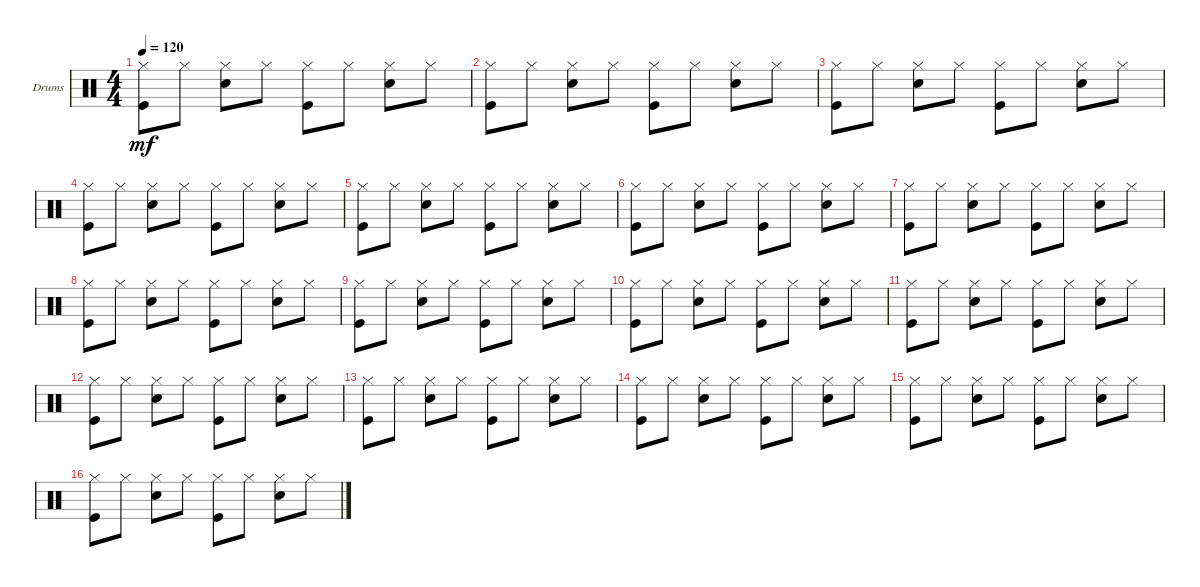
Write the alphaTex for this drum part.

\defaultSystemsLayout 4
\bracketExtendMode groupsimilarinstruments
\firstSystemTrackNameOrientation horizontal
\otherSystemsTrackNameOrientation horizontal
\track ("Drumkit             ( Ударные )" "Drums") {instrument percussion}
\staff {score}
\articulation defaults
\ts (4 4)
\tempo 120
\clef neutral
\ks c
("Hi-Hat (closed)" "Kick (hit)").8{dy mf} "Hi-Hat (closed)".8 ("Hi-Hat (closed)" "Snare (hit) 2").8 "Hi-Hat (closed)".8 ("Hi-Hat (closed)" "Kick (hit)").8 "Hi-Hat (closed)".8 ("Hi-Hat (closed)" "Snare (hit) 2").8 "Hi-Hat (closed)".8 |
("Hi-Hat (closed)" "Kick (hit)").8 "Hi-Hat (closed)".8 ("Hi-Hat (closed)" "Snare (hit) 2").8 "Hi-Hat (closed)".8 ("Hi-Hat (closed)" "Kick (hit)").8 "Hi-Hat (closed)".8 ("Hi-Hat (closed)" "Snare (hit) 2").8 "Hi-Hat (closed)".8 |
("Hi-Hat (closed)" "Kick (hit)").8 "Hi-Hat (closed)".8 ("Hi-Hat (closed)" "Snare (hit) 2").8 "Hi-Hat (closed)".8 ("Hi-Hat (closed)" "Kick (hit)").8 "Hi-Hat (closed)".8 ("Hi-Hat (closed)" "Snare (hit) 2").8 "Hi-Hat (closed)".8 |
("Hi-Hat (closed)" "Kick (hit)").8 "Hi-Hat (closed)".8 ("Hi-Hat (closed)" "Snare (hit) 2").8 "Hi-Hat (closed)".8 ("Hi-Hat (closed)" "Kick (hit)").8 "Hi-Hat (closed)".8 ("Hi-Hat (closed)" "Snare (hit) 2").8 "Hi-Hat (closed)".8 |
("Hi-Hat (closed)" "Kick (hit)").8 "Hi-Hat (closed)".8 ("Hi-Hat (closed)" "Snare (hit) 2").8 "Hi-Hat (closed)".8 ("Hi-Hat (closed)" "Kick (hit)").8 "Hi-Hat (closed)".8 ("Hi-Hat (closed)" "Snare (hit) 2").8 "Hi-Hat (closed)".8 |
("Hi-Hat (closed)" "Kick (hit)").8 "Hi-Hat (closed)".8 ("Hi-Hat (closed)" "Snare (hit) 2").8 "Hi-Hat (closed)".8 ("Hi-Hat (closed)" "Kick (hit)").8 "Hi-Hat (closed)".8 ("Hi-Hat (closed)" "Snare (hit) 2").8 "Hi-Hat (closed)".8 |
("Hi-Hat (closed)" "Kick (hit)").8 "Hi-Hat (closed)".8 ("Hi-Hat (closed)" "Snare (hit) 2").8 "Hi-Hat (closed)".8 ("Hi-Hat (closed)" "Kick (hit)").8 "Hi-Hat (closed)".8 ("Hi-Hat (closed)" "Snare (hit) 2").8 "Hi-Hat (closed)".8 |
("Hi-Hat (closed)" "Kick (hit)").8 "Hi-Hat (closed)".8 ("Hi-Hat (closed)" "Snare (hit) 2").8 "Hi-Hat (closed)".8 ("Hi-Hat (closed)" "Kick (hit)").8 "Hi-Hat (closed)".8 ("Hi-Hat (closed)" "Snare (hit) 2").8 "Hi-Hat (closed)".8 |
("Hi-Hat (closed)" "Kick (hit)").8 "Hi-Hat (closed)".8 ("Hi-Hat (closed)" "Snare (hit) 2").8 "Hi-Hat (closed)".8 ("Hi-Hat (closed)" "Kick (hit)").8 "Hi-Hat (closed)".8 ("Hi-Hat (closed)" "Snare (hit) 2").8 "Hi-Hat (closed)".8 |
("Hi-Hat (closed)" "Kick (hit)").8 "Hi-Hat (closed)".8 ("Hi-Hat (closed)" "Snare (hit) 2").8 "Hi-Hat (closed)".8 ("Hi-Hat (closed)" "Kick (hit)").8 "Hi-Hat (closed)".8 ("Hi-Hat (closed)" "Snare (hit) 2").8 "Hi-Hat (closed)".8 |
("Hi-Hat (closed)" "Kick (hit)").8 "Hi-Hat (closed)".8 ("Hi-Hat (closed)" "Snare (hit) 2").8 "Hi-Hat (closed)".8 ("Hi-Hat (closed)" "Kick (hit)").8 "Hi-Hat (closed)".8 ("Hi-Hat (closed)" "Snare (hit) 2").8 "Hi-Hat (closed)".8 |
("Hi-Hat (closed)" "Kick (hit)").8 "Hi-Hat (closed)".8 ("Hi-Hat (closed)" "Snare (hit) 2").8 "Hi-Hat (closed)".8 ("Hi-Hat (closed)" "Kick (hit)").8 "Hi-Hat (closed)".8 ("Hi-Hat (closed)" "Snare (hit) 2").8 "Hi-Hat (closed)".8 |
("Hi-Hat (closed)" "Kick (hit)").8 "Hi-Hat (closed)".8 ("Hi-Hat (closed)" "Snare (hit) 2").8 "Hi-Hat (closed)".8 ("Hi-Hat (closed)" "Kick (hit)").8 "Hi-Hat (closed)".8 ("Hi-Hat (closed)" "Snare (hit) 2").8 "Hi-Hat (closed)".8 |
("Hi-Hat (closed)" "Kick (hit)").8 "Hi-Hat (closed)".8 ("Hi-Hat (closed)" "Snare (hit) 2").8 "Hi-Hat (closed)".8 ("Hi-Hat (closed)" "Kick (hit)").8 "Hi-Hat (closed)".8 ("Hi-Hat (closed)" "Snare (hit) 2").8 "Hi-Hat (closed)".8 |
("Hi-Hat (closed)" "Kick (hit)").8 "Hi-Hat (closed)".8 ("Hi-Hat (closed)" "Snare (hit) 2").8 "Hi-Hat (closed)".8 ("Hi-Hat (closed)" "Kick (hit)").8 "Hi-Hat (closed)".8 ("Hi-Hat (closed)" "Snare (hit) 2").8 "Hi-Hat (closed)".8 |
("Hi-Hat (closed)" "Kick (hit)").8 "Hi-Hat (closed)".8 ("Hi-Hat (closed)" "Snare (hit) 2").8 "Hi-Hat (closed)".8 ("Hi-Hat (closed)" "Kick (hit)").8 "Hi-Hat (closed)".8 ("Hi-Hat (closed)" "Snare (hit) 2").8 "Hi-Hat (closed)".8
